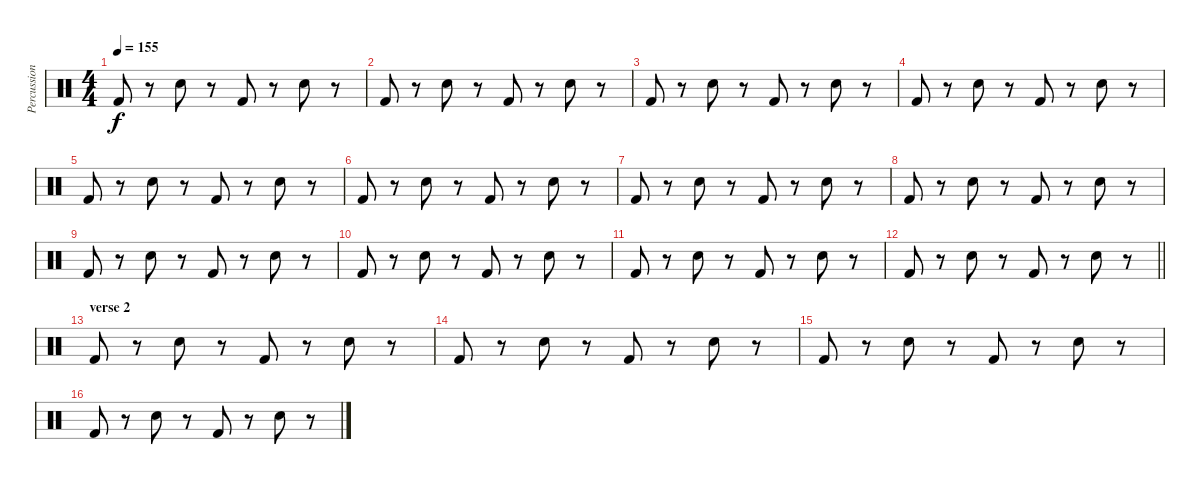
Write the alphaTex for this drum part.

\track ("Percussions" "Percussion") {instrument percussion}
\staff {score}
\articulation defaults
\ts (4 4)
\tempo 155
\clef neutral
\ks c "Kick (hit) 2".8{dy f}
r.8 "Snare (hit) 2".8 r.8 "Kick (hit) 2".8 r.8 "Snare (hit) 2".8 r.8 |
"Kick (hit) 2".8 r.8 "Snare (hit) 2".8 r.8 "Kick (hit) 2".8 r.8 "Snare (hit) 2".8 r.8 |
"Kick (hit) 2".8 r.8 "Snare (hit) 2".8 r.8 "Kick (hit) 2".8 r.8 "Snare (hit) 2".8 r.8 |
"Kick (hit) 2".8 r.8 "Snare (hit) 2".8 r.8 "Kick (hit) 2".8 r.8 "Snare (hit) 2".8 r.8 |
"Kick (hit) 2".8 r.8 "Snare (hit) 2".8 r.8 "Kick (hit) 2".8 r.8 "Snare (hit) 2".8 r.8 |
"Kick (hit) 2".8 r.8 "Snare (hit) 2".8 r.8 "Kick (hit) 2".8 r.8 "Snare (hit) 2".8 r.8 |
"Kick (hit) 2".8 r.8 "Snare (hit) 2".8 r.8 "Kick (hit) 2".8 r.8 "Snare (hit) 2".8 r.8 |
"Kick (hit) 2".8 r.8 "Snare (hit) 2".8 r.8 "Kick (hit) 2".8 r.8 "Snare (hit) 2".8 r.8 |
"Kick (hit) 2".8 r.8 "Snare (hit) 2".8 r.8 "Kick (hit) 2".8 r.8 "Snare (hit) 2".8 r.8 |
"Kick (hit) 2".8 r.8 "Snare (hit) 2".8 r.8 "Kick (hit) 2".8 r.8 "Snare (hit) 2".8 r.8 |
"Kick (hit) 2".8 r.8 "Snare (hit) 2".8 r.8 "Kick (hit) 2".8 r.8 "Snare (hit) 2".8 r.8 |
\barLineRight lightlight "Kick (hit) 2".8
r.8 "Snare (hit) 2".8 r.8 "Kick (hit) 2".8 r.8 "Snare (hit) 2".8 r.8 |
\section ("" "verse 2")
"Kick (hit) 2".8 r.8 "Snare (hit) 2".8 r.8 "Kick (hit) 2".8 r.8 "Snare (hit) 2".8 r.8 |
"Kick (hit) 2".8 r.8 "Snare (hit) 2".8 r.8 "Kick (hit) 2".8 r.8 "Snare (hit) 2".8 r.8 |
"Kick (hit) 2".8 r.8 "Snare (hit) 2".8 r.8 "Kick (hit) 2".8 r.8 "Snare (hit) 2".8 r.8 |
"Kick (hit) 2".8 r.8 "Snare (hit) 2".8 r.8 "Kick (hit) 2".8 r.8 "Snare (hit) 2".8 r.8
